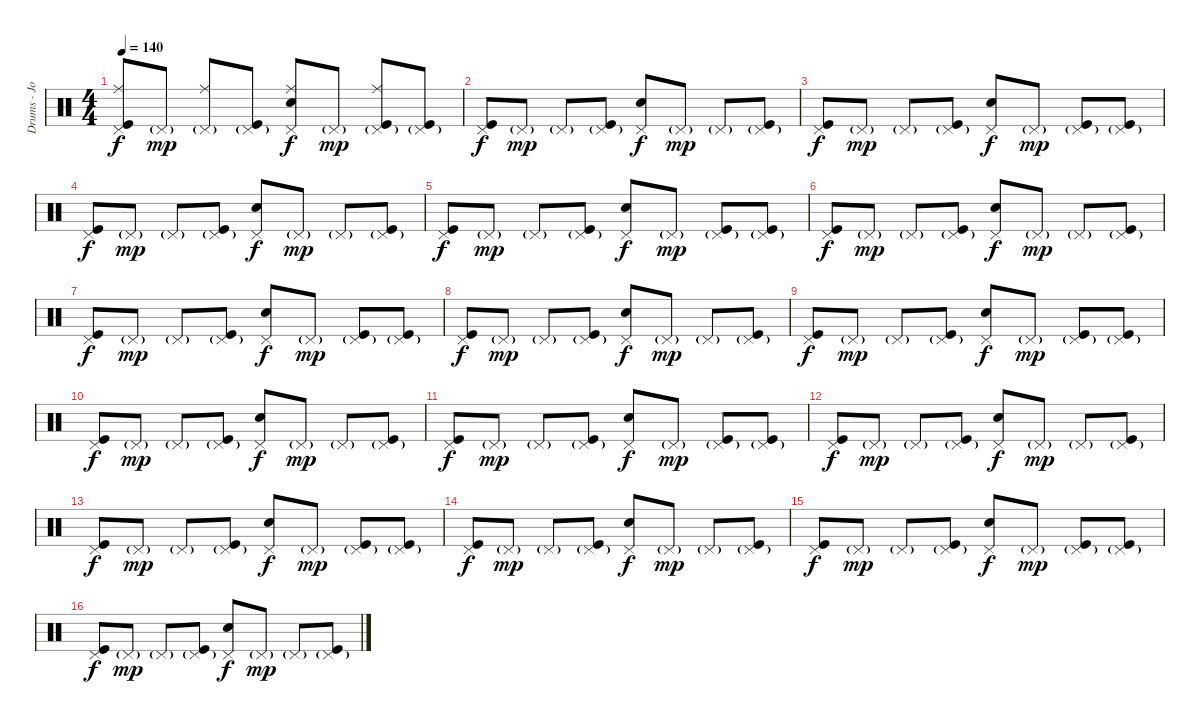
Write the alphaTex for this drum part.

\track ("Drums - Josh Klinghoffer" "Drums - Jo") {instrument percussion}
\staff {score}
\articulation defaults
\ts (4 4)
\tempo 140
\clef neutral
\ks c
("Ride (middle)" "Pedal Hi-Hat (hit)" "Kick (hit)").8{dy f} "Pedal Hi-Hat (hit)"{g}.8{dy mp} ("Ride (middle)" "Pedal Hi-Hat (hit)"{g}).8 ("Pedal Hi-Hat (hit)"{g} "Kick (hit)").8 ("Ride (middle)" "Pedal Hi-Hat (hit)" "Electric Snare (hit)").8{dy f} "Pedal Hi-Hat (hit)"{g}.8{dy mp} ("Ride (middle)" "Pedal Hi-Hat (hit)"{g} "Kick (hit)").8 ("Pedal Hi-Hat (hit)"{g} "Kick (hit)").8 |
("Pedal Hi-Hat (hit)" "Kick (hit)").8{dy f} "Pedal Hi-Hat (hit)"{g}.8{dy mp} "Pedal Hi-Hat (hit)"{g}.8 ("Pedal Hi-Hat (hit)"{g} "Kick (hit)").8 ("Pedal Hi-Hat (hit)" "Electric Snare (hit)").8{dy f} "Pedal Hi-Hat (hit)"{g}.8{dy mp} "Pedal Hi-Hat (hit)"{g}.8 ("Pedal Hi-Hat (hit)"{g} "Kick (hit)").8 |
("Pedal Hi-Hat (hit)" "Kick (hit)").8{dy f} "Pedal Hi-Hat (hit)"{g}.8{dy mp} "Pedal Hi-Hat (hit)"{g}.8 ("Pedal Hi-Hat (hit)"{g} "Kick (hit)").8 ("Pedal Hi-Hat (hit)" "Electric Snare (hit)").8{dy f} "Pedal Hi-Hat (hit)"{g}.8{dy mp} ("Pedal Hi-Hat (hit)"{g} "Kick (hit)").8 ("Pedal Hi-Hat (hit)"{g} "Kick (hit)").8 |
("Pedal Hi-Hat (hit)" "Kick (hit)").8{dy f} "Pedal Hi-Hat (hit)"{g}.8{dy mp} "Pedal Hi-Hat (hit)"{g}.8 ("Pedal Hi-Hat (hit)"{g} "Kick (hit)").8 ("Pedal Hi-Hat (hit)" "Electric Snare (hit)").8{dy f} "Pedal Hi-Hat (hit)"{g}.8{dy mp} "Pedal Hi-Hat (hit)"{g}.8 ("Pedal Hi-Hat (hit)"{g} "Kick (hit)").8 |
("Pedal Hi-Hat (hit)" "Kick (hit)").8{dy f} "Pedal Hi-Hat (hit)"{g}.8{dy mp} "Pedal Hi-Hat (hit)"{g}.8 ("Pedal Hi-Hat (hit)"{g} "Kick (hit)").8 ("Pedal Hi-Hat (hit)" "Electric Snare (hit)").8{dy f} "Pedal Hi-Hat (hit)"{g}.8{dy mp} ("Pedal Hi-Hat (hit)"{g} "Kick (hit)").8 ("Pedal Hi-Hat (hit)"{g} "Kick (hit)").8 |
("Pedal Hi-Hat (hit)" "Kick (hit)").8{dy f} "Pedal Hi-Hat (hit)"{g}.8{dy mp} "Pedal Hi-Hat (hit)"{g}.8 ("Pedal Hi-Hat (hit)"{g} "Kick (hit)").8 ("Pedal Hi-Hat (hit)" "Electric Snare (hit)").8{dy f} "Pedal Hi-Hat (hit)"{g}.8{dy mp} "Pedal Hi-Hat (hit)"{g}.8 ("Pedal Hi-Hat (hit)"{g} "Kick (hit)").8 |
("Pedal Hi-Hat (hit)" "Kick (hit)").8{dy f} "Pedal Hi-Hat (hit)"{g}.8{dy mp} "Pedal Hi-Hat (hit)"{g}.8 ("Pedal Hi-Hat (hit)"{g} "Kick (hit)").8 ("Pedal Hi-Hat (hit)" "Electric Snare (hit)").8{dy f} "Pedal Hi-Hat (hit)"{g}.8{dy mp} ("Pedal Hi-Hat (hit)"{g} "Kick (hit)").8 ("Pedal Hi-Hat (hit)"{g} "Kick (hit)").8 |
("Pedal Hi-Hat (hit)" "Kick (hit)").8{dy f} "Pedal Hi-Hat (hit)"{g}.8{dy mp} "Pedal Hi-Hat (hit)"{g}.8 ("Pedal Hi-Hat (hit)"{g} "Kick (hit)").8 ("Pedal Hi-Hat (hit)" "Electric Snare (hit)").8{dy f} "Pedal Hi-Hat (hit)"{g}.8{dy mp} "Pedal Hi-Hat (hit)"{g}.8 ("Pedal Hi-Hat (hit)"{g} "Kick (hit)").8 |
("Pedal Hi-Hat (hit)" "Kick (hit)").8{dy f} "Pedal Hi-Hat (hit)"{g}.8{dy mp} "Pedal Hi-Hat (hit)"{g}.8 ("Pedal Hi-Hat (hit)"{g} "Kick (hit)").8 ("Pedal Hi-Hat (hit)" "Electric Snare (hit)").8{dy f} "Pedal Hi-Hat (hit)"{g}.8{dy mp} ("Pedal Hi-Hat (hit)"{g} "Kick (hit)").8 ("Pedal Hi-Hat (hit)"{g} "Kick (hit)").8 |
("Pedal Hi-Hat (hit)" "Kick (hit)").8{dy f} "Pedal Hi-Hat (hit)"{g}.8{dy mp} "Pedal Hi-Hat (hit)"{g}.8 ("Pedal Hi-Hat (hit)"{g} "Kick (hit)").8 ("Pedal Hi-Hat (hit)" "Electric Snare (hit)").8{dy f} "Pedal Hi-Hat (hit)"{g}.8{dy mp} "Pedal Hi-Hat (hit)"{g}.8 ("Pedal Hi-Hat (hit)"{g} "Kick (hit)").8 |
("Pedal Hi-Hat (hit)" "Kick (hit)").8{dy f} "Pedal Hi-Hat (hit)"{g}.8{dy mp} "Pedal Hi-Hat (hit)"{g}.8 ("Pedal Hi-Hat (hit)"{g} "Kick (hit)").8 ("Pedal Hi-Hat (hit)" "Electric Snare (hit)").8{dy f} "Pedal Hi-Hat (hit)"{g}.8{dy mp} ("Pedal Hi-Hat (hit)"{g} "Kick (hit)").8 ("Pedal Hi-Hat (hit)"{g} "Kick (hit)").8 |
("Pedal Hi-Hat (hit)" "Kick (hit)").8{dy f} "Pedal Hi-Hat (hit)"{g}.8{dy mp} "Pedal Hi-Hat (hit)"{g}.8 ("Pedal Hi-Hat (hit)"{g} "Kick (hit)").8 ("Pedal Hi-Hat (hit)" "Electric Snare (hit)").8{dy f} "Pedal Hi-Hat (hit)"{g}.8{dy mp} "Pedal Hi-Hat (hit)"{g}.8 ("Pedal Hi-Hat (hit)"{g} "Kick (hit)").8 |
("Pedal Hi-Hat (hit)" "Kick (hit)").8{dy f} "Pedal Hi-Hat (hit)"{g}.8{dy mp} "Pedal Hi-Hat (hit)"{g}.8 ("Pedal Hi-Hat (hit)"{g} "Kick (hit)").8 ("Pedal Hi-Hat (hit)" "Electric Snare (hit)").8{dy f} "Pedal Hi-Hat (hit)"{g}.8{dy mp} ("Pedal Hi-Hat (hit)"{g} "Kick (hit)").8 ("Pedal Hi-Hat (hit)"{g} "Kick (hit)").8 |
("Pedal Hi-Hat (hit)" "Kick (hit)").8{dy f} "Pedal Hi-Hat (hit)"{g}.8{dy mp} "Pedal Hi-Hat (hit)"{g}.8 ("Pedal Hi-Hat (hit)"{g} "Kick (hit)").8 ("Pedal Hi-Hat (hit)" "Electric Snare (hit)").8{dy f} "Pedal Hi-Hat (hit)"{g}.8{dy mp} "Pedal Hi-Hat (hit)"{g}.8 ("Pedal Hi-Hat (hit)"{g} "Kick (hit)").8 |
("Pedal Hi-Hat (hit)" "Kick (hit)").8{dy f} "Pedal Hi-Hat (hit)"{g}.8{dy mp} "Pedal Hi-Hat (hit)"{g}.8 ("Pedal Hi-Hat (hit)"{g} "Kick (hit)").8 ("Pedal Hi-Hat (hit)" "Electric Snare (hit)").8{dy f} "Pedal Hi-Hat (hit)"{g}.8{dy mp} ("Pedal Hi-Hat (hit)"{g} "Kick (hit)").8 ("Pedal Hi-Hat (hit)"{g} "Kick (hit)").8 |
("Pedal Hi-Hat (hit)" "Kick (hit)").8{dy f} "Pedal Hi-Hat (hit)"{g}.8{dy mp} "Pedal Hi-Hat (hit)"{g}.8 ("Pedal Hi-Hat (hit)"{g} "Kick (hit)").8 ("Pedal Hi-Hat (hit)" "Electric Snare (hit)").8{dy f} "Pedal Hi-Hat (hit)"{g}.8{dy mp} "Pedal Hi-Hat (hit)"{g}.8 ("Pedal Hi-Hat (hit)"{g} "Kick (hit)").8
